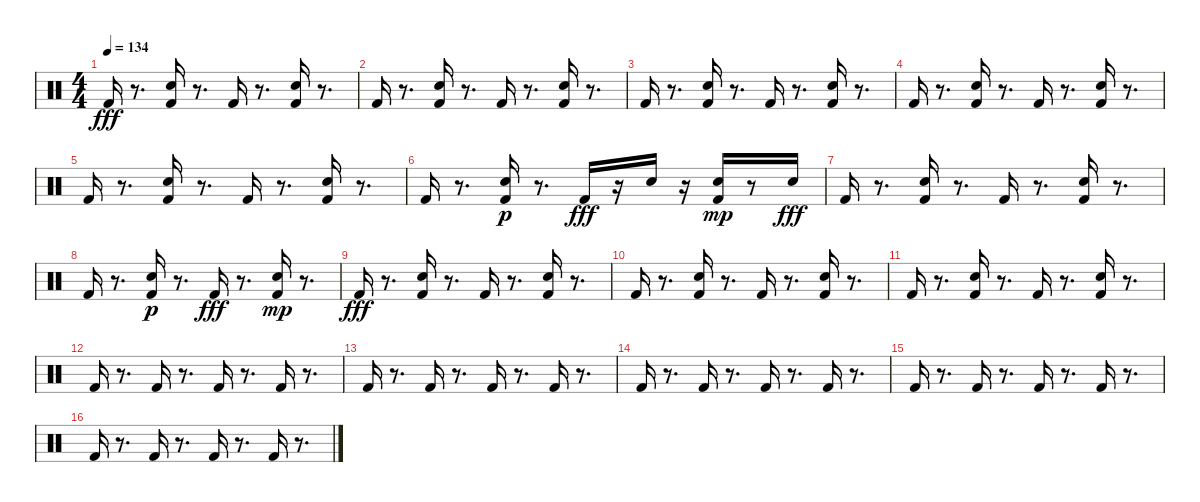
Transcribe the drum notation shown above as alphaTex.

\track "" {instrument percussion}
\staff {score}
\articulation defaults
\ts (4 4)
\tempo 134
\clef neutral
\ks c "Kick (hit) 2".16{dy fff}
r.8{d} ("Kick (hit) 2" "Snare (hit) 2").16 r.8{d} "Kick (hit) 2".16 r.8{d} ("Kick (hit) 2" "Snare (hit) 2").16 r.8{d} |
"Kick (hit) 2".16 r.8{d} ("Kick (hit) 2" "Snare (hit) 2").16 r.8{d} "Kick (hit) 2".16 r.8{d} ("Kick (hit) 2" "Snare (hit) 2").16 r.8{d} |
"Kick (hit) 2".16 r.8{d} ("Kick (hit) 2" "Snare (hit) 2").16 r.8{d} "Kick (hit) 2".16 r.8{d} ("Kick (hit) 2" "Snare (hit) 2").16 r.8{d} |
"Kick (hit) 2".16 r.8{d} ("Kick (hit) 2" "Snare (hit) 2").16 r.8{d} "Kick (hit) 2".16 r.8{d} ("Kick (hit) 2" "Snare (hit) 2").16 r.8{d} |
"Kick (hit) 2".16 r.8{d} ("Kick (hit) 2" "Snare (hit) 2").16 r.8{d} "Kick (hit) 2".16 r.8{d} ("Kick (hit) 2" "Snare (hit) 2").16 r.8{d} |
"Kick (hit) 2".16 r.8{d} ("Snare (hit) 2" "Kick (hit) 2").16{dy p} r.8{d} "Kick (hit) 2".16{dy fff} r.16 "Snare (hit) 2".16 r.16 ("Snare (hit) 2" "Kick (hit) 2").16{dy mp} r.8 "Snare (hit) 2".16{dy fff} |
"Kick (hit) 2".16 r.8{d} ("Kick (hit) 2" "Snare (hit) 2").16 r.8{d} "Kick (hit) 2".16 r.8{d} ("Kick (hit) 2" "Snare (hit) 2").16 r.8{d} |
"Kick (hit) 2".16 r.8{d} ("Snare (hit) 2" "Kick (hit) 2").16{dy p} r.8{d} "Kick (hit) 2".16{dy fff} r.8{d} ("Snare (hit) 2" "Kick (hit) 2").16{dy mp} r.8{d} |
"Kick (hit) 2".16{dy fff} r.8{d} ("Kick (hit) 2" "Snare (hit) 2").16 r.8{d} "Kick (hit) 2".16 r.8{d} ("Kick (hit) 2" "Snare (hit) 2").16 r.8{d} |
"Kick (hit) 2".16 r.8{d} ("Kick (hit) 2" "Snare (hit) 2").16 r.8{d} "Kick (hit) 2".16 r.8{d} ("Kick (hit) 2" "Snare (hit) 2").16 r.8{d} |
"Kick (hit) 2".16 r.8{d} ("Kick (hit) 2" "Snare (hit) 2").16 r.8{d} "Kick (hit) 2".16 r.8{d} ("Kick (hit) 2" "Snare (hit) 2").16 r.8{d} |
"Kick (hit) 2".16 r.8{d} "Kick (hit) 2".16 r.8{d} "Kick (hit) 2".16 r.8{d} "Kick (hit) 2".16 r.8{d} |
"Kick (hit) 2".16 r.8{d} "Kick (hit) 2".16 r.8{d} "Kick (hit) 2".16 r.8{d} "Kick (hit) 2".16 r.8{d} |
"Kick (hit) 2".16 r.8{d} "Kick (hit) 2".16 r.8{d} "Kick (hit) 2".16 r.8{d} "Kick (hit) 2".16 r.8{d} |
"Kick (hit) 2".16 r.8{d} "Kick (hit) 2".16 r.8{d} "Kick (hit) 2".16 r.8{d} "Kick (hit) 2".16 r.8{d} |
"Kick (hit) 2".16 r.8{d} "Kick (hit) 2".16 r.8{d} "Kick (hit) 2".16 r.8{d} "Kick (hit) 2".16 r.8{d}
